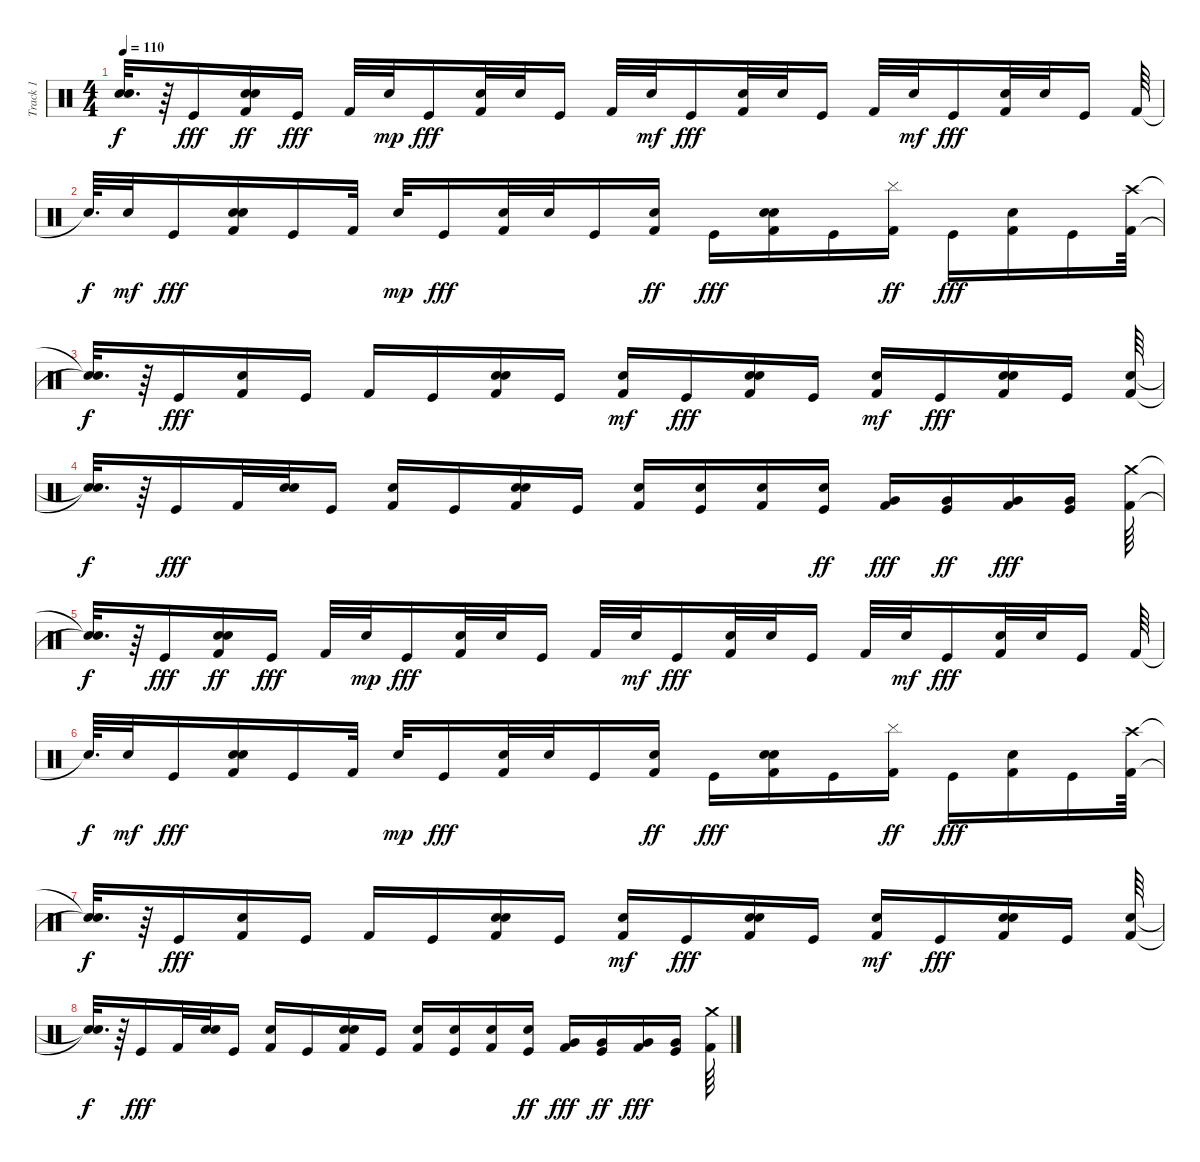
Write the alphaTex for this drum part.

\track ("Track 1" "Track 1") {mute instrument percussion}
\staff {score}
\articulation defaults
\ts (4 4)
\tempo 110
\clef neutral
\ks c
("Snare (hit)"{t} "Snare (hit)"{t}).32{d dy f} r.64 "Kick (hit)".16{dy fff} ("Kick (hit) 2" "Snare (hit) 2" "Snare (hit)").16{dy ff} "Kick (hit)".16{dy fff} "Kick (hit) 2".32 "Snare (hit)".32{dy mp} "Kick (hit)".16{dy fff} ("Kick (hit) 2" "Snare (hit) 2").32 "Snare (hit)".32 "Kick (hit)".16 "Kick (hit) 2".32 "Snare (hit)".32{dy mf} "Kick (hit)".16{dy fff} ("Kick (hit) 2" "Snare (hit) 2").32 "Snare (hit)".32 "Kick (hit)".16 "Kick (hit) 2".32 "Snare (hit)".32{dy mf} "Kick (hit)".16{dy fff} ("Kick (hit) 2" "Snare (hit) 2").32 "Snare (hit)".32 "Kick (hit)".16 "Kick (hit) 2".64 |
"Snare (hit)"{t}.64{d dy f} "Snare (hit)".32{dy mf} "Kick (hit)".16{dy fff} ("Kick (hit) 2" "Snare (hit) 2" "Snare (hit)").16 "Kick (hit)".16 "Kick (hit) 2".32 "Snare (hit)".32{dy mp} "Kick (hit)".16{dy fff} ("Kick (hit) 2" "Snare (hit)").32 "Snare (hit) 2".32 "Kick (hit)".16 ("Kick (hit) 2" "Snare (hit)").16{dy ff} "Kick (hit)".16{dy fff} ("Kick (hit) 2" "Snare (hit)" "Snare (hit) 2").16 "Kick (hit)".16 ("Kick (hit) 2" "Cymbal (hit)").16{dy ff} "Kick (hit)".16{dy fff} ("Kick (hit) 2" "Snare (hit) 2").16 "Kick (hit)".16 ("Kick (hit) 2" "Crash high (hit)").64 |
("Snare (hit)"{t} "Snare (hit)"{t}).32{d dy f} r.64 "Kick (hit)".16{dy fff} ("Kick (hit) 2" "Snare (hit) 2").16 "Kick (hit)".16 "Kick (hit) 2".16 "Kick (hit)".16 ("Kick (hit) 2" "Snare (hit)" "Snare (hit) 2").16 "Kick (hit)".16 ("Kick (hit) 2" "Snare (hit)").16{dy mf} "Kick (hit)".16{dy fff} ("Kick (hit) 2" "Snare (hit) 2" "Snare (hit)").16 "Kick (hit)".16 ("Kick (hit) 2" "Snare (hit)").16{dy mf} "Kick (hit)".16{dy fff} ("Kick (hit) 2" "Snare (hit) 2" "Snare (hit)").16 "Kick (hit)".16 ("Kick (hit) 2" "Snare (hit)").64 |
("Snare (hit)"{t} "Snare (hit)"{t}).32{d dy f} r.64 "Kick (hit)".16{dy fff} "Kick (hit) 2".32 ("Snare (hit) 2" "Snare (hit)").32 "Kick (hit)".16 ("Kick (hit) 2" "Snare (hit)").16 "Kick (hit)".16 ("Snare (hit)" "Kick (hit) 2" "Snare (hit) 2").16 "Kick (hit)".16 ("Kick (hit) 2" "Snare (hit) 2").16 ("Kick (hit)" "Snare (hit) 2").16 ("Kick (hit) 2" "Snare (hit) 2").16 ("Kick (hit)" "Snare (hit) 2").16{dy ff} ("Kick (hit) 2" "Very Low Tom (hit)").16{dy fff} ("Kick (hit)" "Very Low Tom (hit)").16{dy ff} ("Kick (hit) 2" "Very Low Tom (hit)").16{dy fff} ("Kick (hit)" "Very Low Tom (hit)").16 ("Kick (hit) 2" "Crash medium (hit)").64 |
("Snare (hit)"{t} "Snare (hit)"{t}).32{d dy f} r.64 "Kick (hit)".16{dy fff} ("Kick (hit) 2" "Snare (hit) 2" "Snare (hit)").16{dy ff} "Kick (hit)".16{dy fff} "Kick (hit) 2".32 "Snare (hit)".32{dy mp} "Kick (hit)".16{dy fff} ("Kick (hit) 2" "Snare (hit) 2").32 "Snare (hit)".32 "Kick (hit)".16 "Kick (hit) 2".32 "Snare (hit)".32{dy mf} "Kick (hit)".16{dy fff} ("Kick (hit) 2" "Snare (hit) 2").32 "Snare (hit)".32 "Kick (hit)".16 "Kick (hit) 2".32 "Snare (hit)".32{dy mf} "Kick (hit)".16{dy fff} ("Kick (hit) 2" "Snare (hit) 2").32 "Snare (hit)".32 "Kick (hit)".16 "Kick (hit) 2".64 |
"Snare (hit)"{t}.64{d dy f} "Snare (hit)".32{dy mf} "Kick (hit)".16{dy fff} ("Kick (hit) 2" "Snare (hit) 2" "Snare (hit)").16 "Kick (hit)".16 "Kick (hit) 2".32 "Snare (hit)".32{dy mp} "Kick (hit)".16{dy fff} ("Kick (hit) 2" "Snare (hit)").32 "Snare (hit) 2".32 "Kick (hit)".16 ("Kick (hit) 2" "Snare (hit)").16{dy ff} "Kick (hit)".16{dy fff} ("Kick (hit) 2" "Snare (hit)" "Snare (hit) 2").16 "Kick (hit)".16 ("Kick (hit) 2" "Cymbal (hit)").16{dy ff} "Kick (hit)".16{dy fff} ("Kick (hit) 2" "Snare (hit) 2").16 "Kick (hit)".16 ("Kick (hit) 2" "Crash high (hit)").64 |
("Snare (hit)"{t} "Snare (hit)"{t}).32{d dy f} r.64 "Kick (hit)".16{dy fff} ("Kick (hit) 2" "Snare (hit) 2").16 "Kick (hit)".16 "Kick (hit) 2".16 "Kick (hit)".16 ("Kick (hit) 2" "Snare (hit)" "Snare (hit) 2").16 "Kick (hit)".16 ("Kick (hit) 2" "Snare (hit)").16{dy mf} "Kick (hit)".16{dy fff} ("Kick (hit) 2" "Snare (hit) 2" "Snare (hit)").16 "Kick (hit)".16 ("Kick (hit) 2" "Snare (hit)").16{dy mf} "Kick (hit)".16{dy fff} ("Kick (hit) 2" "Snare (hit) 2" "Snare (hit)").16 "Kick (hit)".16 ("Kick (hit) 2" "Snare (hit)").64 |
("Snare (hit)"{t} "Snare (hit)"{t}).32{d dy f} r.64 "Kick (hit)".16{dy fff} "Kick (hit) 2".32 ("Snare (hit) 2" "Snare (hit)").32 "Kick (hit)".16 ("Kick (hit) 2" "Snare (hit)").16 "Kick (hit)".16 ("Snare (hit)" "Kick (hit) 2" "Snare (hit) 2").16 "Kick (hit)".16 ("Kick (hit) 2" "Snare (hit) 2").16 ("Kick (hit)" "Snare (hit) 2").16 ("Kick (hit) 2" "Snare (hit) 2").16 ("Kick (hit)" "Snare (hit) 2").16{dy ff} ("Kick (hit) 2" "Very Low Tom (hit)").16{dy fff} ("Kick (hit)" "Very Low Tom (hit)").16{dy ff} ("Kick (hit) 2" "Very Low Tom (hit)").16{dy fff} ("Kick (hit)" "Very Low Tom (hit)").16 ("Kick (hit) 2" "Crash medium (hit)").64
